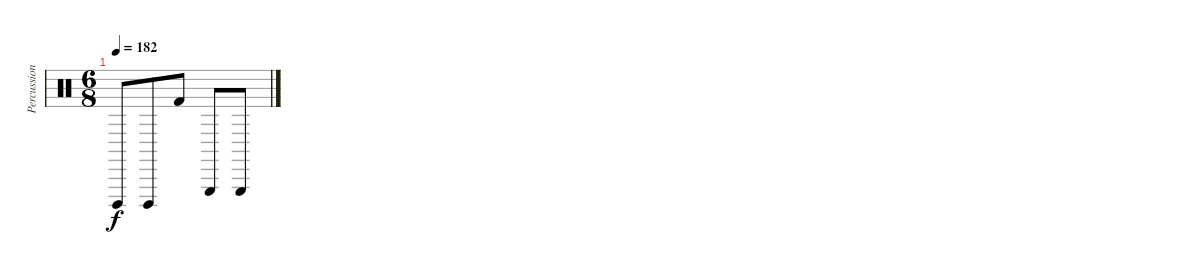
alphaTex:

\track ("Percussion" "Percussion") {instrument percussion}
\staff {score}
\articulation defaults
\ts (6 8)
\tempo 182
\clef neutral
\ks c "Cuica (open)".8{dy f} "Cuica (open)".8 "Kick (hit) 2".8 "Triangle (hit)".8 "Triangle (hit)".8
